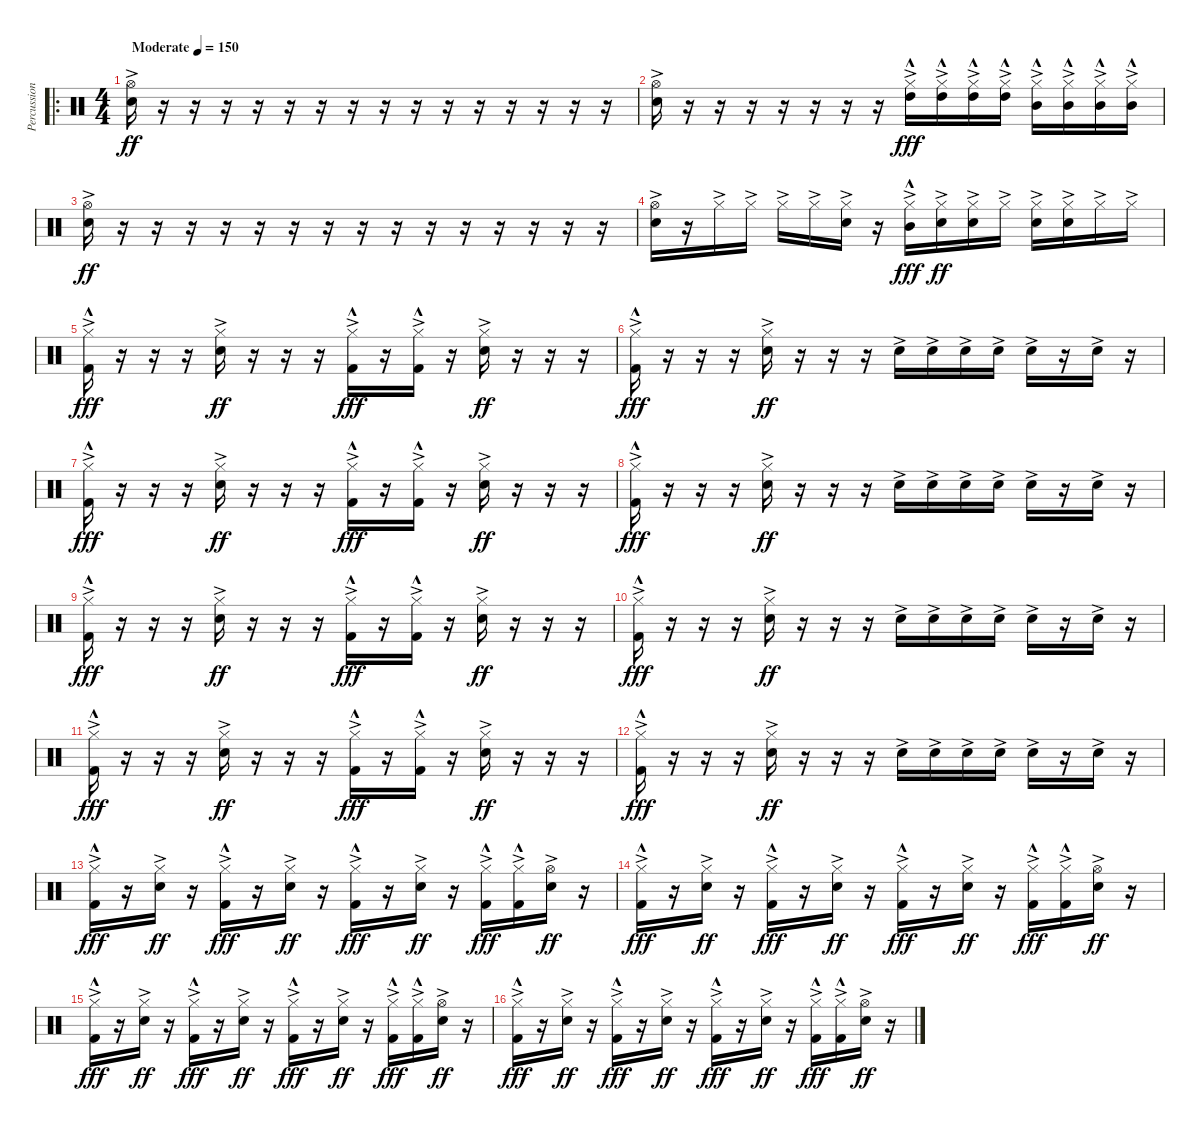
\track ("Percussion" "Percussion") {instrument percussion bank 255}
\staff {score}
\articulation defaults
\ro
\ts (4 4)
\tempo (150 "Moderate")
\clef neutral
\ks c
("Hi-Hat (open)"{ac} "Snare (hit) 2"{ac}).16{dy ff} r.16 r.16 r.16 r.16 r.16 r.16 r.16 r.16 r.16 r.16 r.16 r.16 r.16 r.16 r.16 |
("Hi-Hat (open)"{ac} "Snare (hit) 2"{ac}).16 r.16 r.16 r.16 r.16 r.16 r.16 r.16 ("Hi-Hat (closed)"{ac} "High Tom (hit)"{hac}).16{dy fff} ("Hi-Hat (closed)"{ac} "High Tom (hit)"{hac}).16 ("Hi-Hat (closed)"{ac} "High Tom (hit)"{hac}).16 ("Hi-Hat (closed)"{ac} "High Tom (hit)"{hac}).16 ("Hi-Hat (closed)"{ac} "Mid Tom (hit)"{hac}).16 ("Hi-Hat (closed)"{ac} "Mid Tom (hit)"{hac}).16 ("Hi-Hat (closed)"{ac} "Mid Tom (hit)"{hac}).16 ("Hi-Hat (closed)"{ac} "Mid Tom (hit)"{hac}).16 |
("Hi-Hat (open)"{ac} "Snare (hit) 2"{ac}).16{dy ff} r.16 r.16 r.16 r.16 r.16 r.16 r.16 r.16 r.16 r.16 r.16 r.16 r.16 r.16 r.16 |
("Hi-Hat (open)"{ac} "Snare (hit) 2"{ac}).16 r.16 "Hi-Hat (closed)"{ac}.16 "Hi-Hat (closed)"{ac}.16 "Hi-Hat (closed)"{ac}.16 "Hi-Hat (closed)"{ac}.16 ("Hi-Hat (closed)"{ac} "Snare (hit) 2"{ac}).16 r.16 ("Hi-Hat (closed)"{ac} "Mid Tom (hit)"{hac}).16{dy fff} ("Hi-Hat (closed)"{ac} "Snare (hit) 2"{ac}).16{dy ff} ("Hi-Hat (closed)"{ac} "Snare (hit) 2"{ac}).16 "Hi-Hat (closed)"{ac}.16 ("Hi-Hat (closed)"{ac} "Snare (hit) 2"{ac}).16 ("Hi-Hat (closed)"{ac} "Snare (hit) 2"{ac}).16 "Hi-Hat (closed)"{ac}.16 "Hi-Hat (closed)"{ac}.16 |
("Hi-Hat (closed)"{ac} "Kick (hit) 2"{hac}).16{dy fff} r.16 r.16 r.16 ("Hi-Hat (closed)"{ac} "Snare (hit) 2"{ac}).16{dy ff} r.16 r.16 r.16 ("Hi-Hat (closed)"{ac} "Kick (hit) 2"{hac}).16{dy fff} r.16 ("Hi-Hat (closed)"{ac} "Kick (hit) 2"{hac}).16 r.16 ("Hi-Hat (closed)"{ac} "Snare (hit) 2"{ac}).16{dy ff} r.16 r.16 r.16 |
("Hi-Hat (closed)"{ac} "Kick (hit) 2"{hac}).16{dy fff} r.16 r.16 r.16 ("Hi-Hat (closed)"{ac} "Snare (hit) 2"{ac}).16{dy ff} r.16 r.16 r.16 "Snare (hit) 2"{ac}.16 "Snare (hit) 2"{ac}.16 "Snare (hit) 2"{ac}.16 "Snare (hit) 2"{ac}.16 "Snare (hit) 2"{ac}.16 r.16 "Snare (hit) 2"{ac}.16 r.16 |
("Hi-Hat (closed)"{ac} "Kick (hit) 2"{hac}).16{dy fff} r.16 r.16 r.16 ("Hi-Hat (closed)"{ac} "Snare (hit) 2"{ac}).16{dy ff} r.16 r.16 r.16 ("Hi-Hat (closed)"{ac} "Kick (hit) 2"{hac}).16{dy fff} r.16 ("Hi-Hat (closed)"{ac} "Kick (hit) 2"{hac}).16 r.16 ("Hi-Hat (closed)"{ac} "Snare (hit) 2"{ac}).16{dy ff} r.16 r.16 r.16 |
("Hi-Hat (closed)"{ac} "Kick (hit) 2"{hac}).16{dy fff} r.16 r.16 r.16 ("Hi-Hat (closed)"{ac} "Snare (hit) 2"{ac}).16{dy ff} r.16 r.16 r.16 "Snare (hit) 2"{ac}.16 "Snare (hit) 2"{ac}.16 "Snare (hit) 2"{ac}.16 "Snare (hit) 2"{ac}.16 "Snare (hit) 2"{ac}.16 r.16 "Snare (hit) 2"{ac}.16 r.16 |
("Hi-Hat (closed)"{ac} "Kick (hit) 2"{hac}).16{dy fff} r.16 r.16 r.16 ("Hi-Hat (closed)"{ac} "Snare (hit) 2"{ac}).16{dy ff} r.16 r.16 r.16 ("Hi-Hat (closed)"{ac} "Kick (hit) 2"{hac}).16{dy fff} r.16 ("Hi-Hat (closed)"{ac} "Kick (hit) 2"{hac}).16 r.16 ("Hi-Hat (closed)"{ac} "Snare (hit) 2"{ac}).16{dy ff} r.16 r.16 r.16 |
("Hi-Hat (closed)"{ac} "Kick (hit) 2"{hac}).16{dy fff} r.16 r.16 r.16 ("Hi-Hat (closed)"{ac} "Snare (hit) 2"{ac}).16{dy ff} r.16 r.16 r.16 "Snare (hit) 2"{ac}.16 "Snare (hit) 2"{ac}.16 "Snare (hit) 2"{ac}.16 "Snare (hit) 2"{ac}.16 "Snare (hit) 2"{ac}.16 r.16 "Snare (hit) 2"{ac}.16 r.16 |
("Hi-Hat (closed)"{ac} "Kick (hit) 2"{hac}).16{dy fff} r.16 r.16 r.16 ("Hi-Hat (closed)"{ac} "Snare (hit) 2"{ac}).16{dy ff} r.16 r.16 r.16 ("Hi-Hat (closed)"{ac} "Kick (hit) 2"{hac}).16{dy fff} r.16 ("Hi-Hat (closed)"{ac} "Kick (hit) 2"{hac}).16 r.16 ("Hi-Hat (closed)"{ac} "Snare (hit) 2"{ac}).16{dy ff} r.16 r.16 r.16 |
("Hi-Hat (closed)"{ac} "Kick (hit) 2"{hac}).16{dy fff} r.16 r.16 r.16 ("Hi-Hat (closed)"{ac} "Snare (hit) 2"{ac}).16{dy ff} r.16 r.16 r.16 "Snare (hit) 2"{ac}.16 "Snare (hit) 2"{ac}.16 "Snare (hit) 2"{ac}.16 "Snare (hit) 2"{ac}.16 "Snare (hit) 2"{ac}.16 r.16 "Snare (hit) 2"{ac}.16 r.16 |
("Hi-Hat (closed)"{ac} "Kick (hit) 2"{hac}).16{dy fff} r.16 ("Hi-Hat (closed)"{ac} "Snare (hit) 2"{ac}).16{dy ff} r.16 ("Hi-Hat (closed)"{ac} "Kick (hit) 2"{hac}).16{dy fff} r.16 ("Hi-Hat (closed)"{ac} "Snare (hit) 2"{ac}).16{dy ff} r.16 ("Hi-Hat (closed)"{ac} "Kick (hit) 2"{hac}).16{dy fff} r.16 ("Hi-Hat (closed)"{ac} "Snare (hit) 2"{ac}).16{dy ff} r.16 ("Hi-Hat (closed)"{ac} "Kick (hit) 2"{hac}).16{dy fff} ("Hi-Hat (closed)"{ac} "Kick (hit) 2"{hac}).16 ("Hi-Hat (open)"{ac} "Snare (hit) 2"{ac}).16{dy ff} r.16 |
("Hi-Hat (closed)"{ac} "Kick (hit) 2"{hac}).16{dy fff} r.16 ("Hi-Hat (closed)"{ac} "Snare (hit) 2"{ac}).16{dy ff} r.16 ("Hi-Hat (closed)"{ac} "Kick (hit) 2"{hac}).16{dy fff} r.16 ("Hi-Hat (closed)"{ac} "Snare (hit) 2"{ac}).16{dy ff} r.16 ("Hi-Hat (closed)"{ac} "Kick (hit) 2"{hac}).16{dy fff} r.16 ("Hi-Hat (closed)"{ac} "Snare (hit) 2"{ac}).16{dy ff} r.16 ("Hi-Hat (closed)"{ac} "Kick (hit) 2"{hac}).16{dy fff} ("Hi-Hat (closed)"{ac} "Kick (hit) 2"{hac}).16 ("Hi-Hat (open)"{ac} "Snare (hit) 2"{ac}).16{dy ff} r.16 |
("Hi-Hat (closed)"{ac} "Kick (hit) 2"{hac}).16{dy fff} r.16 ("Hi-Hat (closed)"{ac} "Snare (hit) 2"{ac}).16{dy ff} r.16 ("Hi-Hat (closed)"{ac} "Kick (hit) 2"{hac}).16{dy fff} r.16 ("Hi-Hat (closed)"{ac} "Snare (hit) 2"{ac}).16{dy ff} r.16 ("Hi-Hat (closed)"{ac} "Kick (hit) 2"{hac}).16{dy fff} r.16 ("Hi-Hat (closed)"{ac} "Snare (hit) 2"{ac}).16{dy ff} r.16 ("Hi-Hat (closed)"{ac} "Kick (hit) 2"{hac}).16{dy fff} ("Hi-Hat (closed)"{ac} "Kick (hit) 2"{hac}).16 ("Hi-Hat (open)"{ac} "Snare (hit) 2"{ac}).16{dy ff} r.16 |
("Hi-Hat (closed)"{ac} "Kick (hit) 2"{hac}).16{dy fff} r.16 ("Hi-Hat (closed)"{ac} "Snare (hit) 2"{ac}).16{dy ff} r.16 ("Hi-Hat (closed)"{ac} "Kick (hit) 2"{hac}).16{dy fff} r.16 ("Hi-Hat (closed)"{ac} "Snare (hit) 2"{ac}).16{dy ff} r.16 ("Hi-Hat (closed)"{ac} "Kick (hit) 2"{hac}).16{dy fff} r.16 ("Hi-Hat (closed)"{ac} "Snare (hit) 2"{ac}).16{dy ff} r.16 ("Hi-Hat (closed)"{ac} "Kick (hit) 2"{hac}).16{dy fff} ("Hi-Hat (closed)"{ac} "Kick (hit) 2"{hac}).16 ("Hi-Hat (open)"{ac} "Snare (hit) 2"{ac}).16{dy ff} r.16
